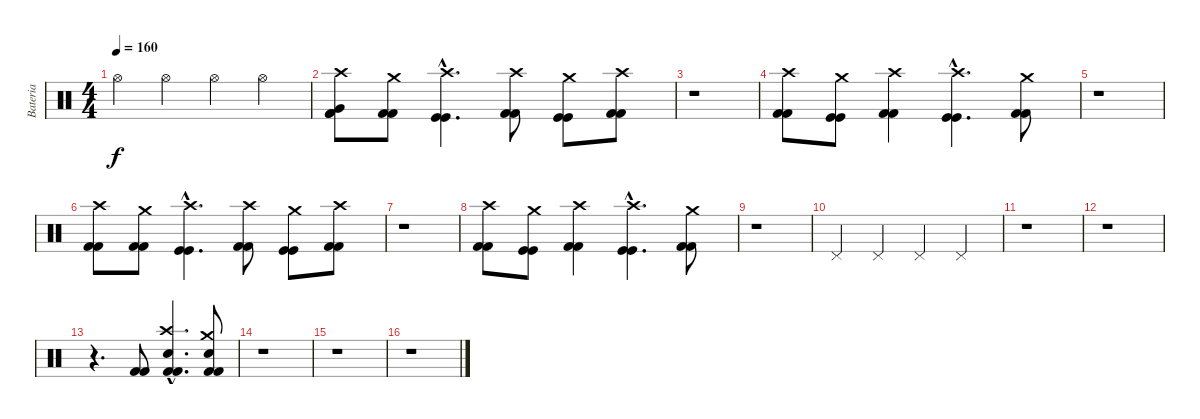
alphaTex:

\track ("Bateria" "Bateria") {instrument percussion}
\staff {score}
\articulation defaults
\ts (4 4)
\tempo 160
\clef neutral
\ks c "Hi-Hat (open)".4{dy f} "Hi-Hat (open)".4 "Hi-Hat (open)".4 "Hi-Hat (open)".4
|
("Kick (hit) 2" "Kick (hit) 2" "Very Low Tom (hit)" "Crash high (hit)").8 ("Kick (hit) 2" "Kick (hit) 2" "Crash medium (hit)").8 ("Kick (hit)"{hac} "Kick (hit)"{hac} "Crash high (hit)"{hac}).4{d} ("Kick (hit) 2" "Kick (hit) 2" "Crash high (hit)").8 ("Kick (hit)" "Kick (hit)" "Crash medium (hit)").8 ("Kick (hit) 2" "Kick (hit) 2" "Crash high (hit)").8 |
r.1 |
("Kick (hit) 2" "Kick (hit) 2" "Crash high (hit)").8 ("Kick (hit)" "Kick (hit)" "Crash medium (hit)").8 ("Kick (hit) 2" "Kick (hit) 2" "Crash high (hit)").4 ("Kick (hit)"{hac} "Kick (hit)"{hac} "Crash high (hit)"{hac}).4{d} ("Kick (hit) 2" "Kick (hit) 2" "Crash medium (hit)").8 |
r.1 |
("Kick (hit) 2" "Kick (hit) 2" "Crash high (hit)").8 ("Kick (hit) 2" "Kick (hit) 2" "Crash medium (hit)").8 ("Kick (hit)"{hac} "Kick (hit)"{hac} "Crash high (hit)"{hac}).4{d} ("Kick (hit) 2" "Kick (hit) 2" "Crash high (hit)").8 ("Kick (hit)" "Kick (hit)" "Crash medium (hit)").8 ("Kick (hit) 2" "Kick (hit) 2" "Crash high (hit)").8 |
r.1 |
("Kick (hit) 2" "Kick (hit) 2" "Crash high (hit)").8 ("Kick (hit)" "Kick (hit)" "Crash medium (hit)").8 ("Kick (hit) 2" "Kick (hit) 2" "Crash high (hit)").4 ("Kick (hit)"{hac} "Kick (hit)"{hac} "Crash high (hit)"{hac}).4{d} ("Kick (hit) 2" "Kick (hit) 2" "Crash medium (hit)").8 |
r.1 |
"Pedal Hi-Hat (hit)".4 "Pedal Hi-Hat (hit)".4 "Pedal Hi-Hat (hit)".4 "Pedal Hi-Hat (hit)".4 |
r.1 |
r.1 |
r.4{d} ("Kick (hit) 2" "Kick (hit) 2").8 ("Kick (hit) 2"{hac} "Kick (hit) 2"{hac} "Snare (hit) 2"{hac} "Crash high (hit)"{hac}).4{d} ("Kick (hit) 2" "Kick (hit) 2" "Snare (hit) 2" "Crash medium (hit)").8 |
r.1 |
r.1 |
r.1
